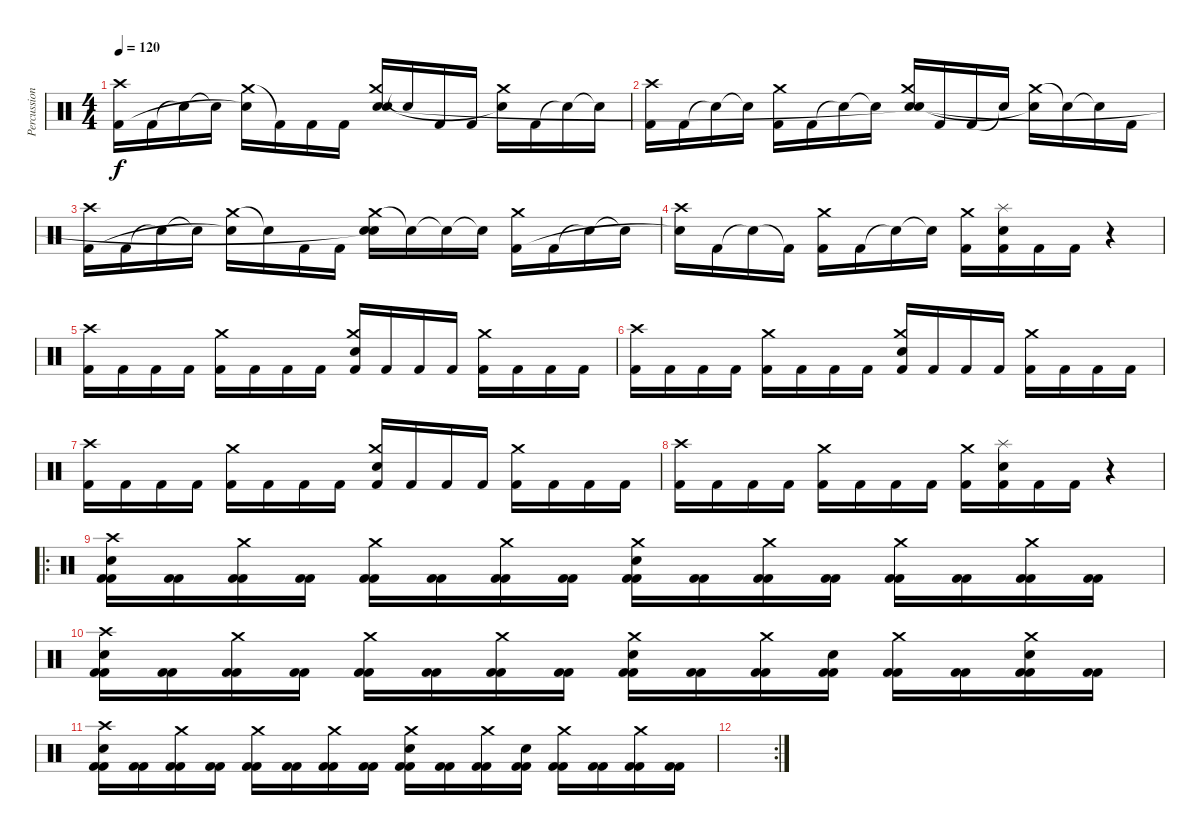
\track ("Percussion" "Percussion") {instrument percussion}
\staff {score}
\articulation defaults
\ts (4 4)
\tempo 120
\clef neutral
\ks c
("Crash high (hit)" "Kick (hit) 2").16{dy f} "Kick (hit) 2".16 "Snare (hit)"{t}.16 "Snare (hit)"{t}.16 ("Crash medium (hit)" "Snare (hit)"{t}).16 "Kick (hit) 2"{t}.16 "Kick (hit) 2".16 "Kick (hit) 2".16 ("Crash medium (hit)" "Electric Snare (hit)" "Snare (hit)"{t}).16 "Snare (hit)"{t}.16 "Kick (hit) 2".16 "Kick (hit) 2".16 ("Crash medium (hit)" "Snare (hit)"{t}).16 "Kick (hit) 2".16 "Snare (hit)"{t}.16 "Snare (hit)"{t}.16 |
("Crash high (hit)" "Kick (hit) 2").16 "Kick (hit) 2".16 "Snare (hit)"{t}.16 "Snare (hit)"{t}.16 ("Crash medium (hit)" "Kick (hit) 2").16 "Kick (hit) 2".16 "Snare (hit)"{t}.16 "Snare (hit)"{t}.16 ("Crash medium (hit)" "Electric Snare (hit)" "Snare (hit)"{t}).16 "Kick (hit) 2".16 "Kick (hit) 2".16 "Snare (hit)"{t}.16 ("Crash medium (hit)" "Snare (hit)"{t}).16 "Snare (hit)"{t}.16 "Snare (hit)"{t}.16 "Kick (hit) 2".16 |
("Crash high (hit)" "Kick (hit) 2").16 "Kick (hit) 2".16 "Snare (hit)"{t}.16 "Snare (hit)"{t}.16 ("Crash medium (hit)" "Snare (hit)"{t}).16 "Snare (hit)"{t}.16 "Kick (hit) 2".16 "Kick (hit) 2".16 ("Crash medium (hit)" "Electric Snare (hit)" "Snare (hit)"{t}).16 "Snare (hit)"{t}.16 "Snare (hit)"{t}.16 "Snare (hit)"{t}.16 ("Crash medium (hit)" "Kick (hit) 2").16 "Kick (hit) 2".16 "Snare (hit)"{t}.16 "Snare (hit)"{t}.16 |
("Crash high (hit)" "Snare (hit)"{t}).16 "Kick (hit) 2".16 "Snare (hit)"{t}.16 "Kick (hit) 2"{t}.16 ("Crash medium (hit)" "Kick (hit) 2").16 "Kick (hit) 2".16 "Snare (hit)"{t}.16 "Snare (hit)"{t}.16 ("Crash medium (hit)" "Kick (hit) 2").16 ("Splash (hit)" "Electric Snare (hit)" "Kick (hit) 2").16 "Kick (hit) 2".16 "Kick (hit) 2".16 r.4 |
("Crash high (hit)" "Kick (hit) 2").16 "Kick (hit) 2".16 "Kick (hit) 2".16 "Kick (hit) 2".16 ("Crash medium (hit)" "Kick (hit) 2").16 "Kick (hit) 2".16 "Kick (hit) 2".16 "Kick (hit) 2".16 ("Crash medium (hit)" "Electric Snare (hit)" "Kick (hit) 2").16 "Kick (hit) 2".16 "Kick (hit) 2".16 "Kick (hit) 2".16 ("Crash medium (hit)" "Kick (hit) 2").16 "Kick (hit) 2".16 "Kick (hit) 2".16 "Kick (hit) 2".16 |
("Crash high (hit)" "Kick (hit) 2").16 "Kick (hit) 2".16 "Kick (hit) 2".16 "Kick (hit) 2".16 ("Crash medium (hit)" "Kick (hit) 2").16 "Kick (hit) 2".16 "Kick (hit) 2".16 "Kick (hit) 2".16 ("Crash medium (hit)" "Electric Snare (hit)" "Kick (hit) 2").16 "Kick (hit) 2".16 "Kick (hit) 2".16 "Kick (hit) 2".16 ("Crash medium (hit)" "Kick (hit) 2").16 "Kick (hit) 2".16 "Kick (hit) 2".16 "Kick (hit) 2".16 |
("Crash high (hit)" "Kick (hit) 2").16 "Kick (hit) 2".16 "Kick (hit) 2".16 "Kick (hit) 2".16 ("Crash medium (hit)" "Kick (hit) 2").16 "Kick (hit) 2".16 "Kick (hit) 2".16 "Kick (hit) 2".16 ("Crash medium (hit)" "Electric Snare (hit)" "Kick (hit) 2").16 "Kick (hit) 2".16 "Kick (hit) 2".16 "Kick (hit) 2".16 ("Crash medium (hit)" "Kick (hit) 2").16 "Kick (hit) 2".16 "Kick (hit) 2".16 "Kick (hit) 2".16 |
("Crash high (hit)" "Kick (hit) 2").16 "Kick (hit) 2".16 "Kick (hit) 2".16 "Kick (hit) 2".16 ("Crash medium (hit)" "Kick (hit) 2").16 "Kick (hit) 2".16 "Kick (hit) 2".16 "Kick (hit) 2".16 ("Crash medium (hit)" "Kick (hit) 2").16 ("Splash (hit)" "Electric Snare (hit)" "Kick (hit) 2").16 "Kick (hit) 2".16 "Kick (hit) 2".16 r.4 |
\ro
("Crash high (hit)" "Electric Snare (hit)" "Kick (hit) 2" "Kick (hit) 2").16 ("Kick (hit) 2" "Kick (hit) 2").16 ("Crash medium (hit)" "Kick (hit) 2" "Kick (hit) 2").16 ("Kick (hit) 2" "Kick (hit) 2").16 ("Crash medium (hit)" "Kick (hit) 2" "Kick (hit) 2").16 ("Kick (hit) 2" "Kick (hit) 2").16 ("Crash medium (hit)" "Kick (hit) 2" "Kick (hit) 2").16 ("Kick (hit) 2" "Kick (hit) 2").16 ("Crash medium (hit)" "Electric Snare (hit)" "Kick (hit) 2" "Kick (hit) 2").16 ("Kick (hit) 2" "Kick (hit) 2").16 ("Crash medium (hit)" "Kick (hit) 2" "Kick (hit) 2").16 ("Kick (hit) 2" "Kick (hit) 2").16 ("Crash medium (hit)" "Kick (hit) 2" "Kick (hit) 2").16 ("Kick (hit) 2" "Kick (hit) 2").16 ("Crash medium (hit)" "Kick (hit) 2" "Kick (hit) 2").16 ("Kick (hit) 2" "Kick (hit) 2").16 |
("Crash high (hit)" "Electric Snare (hit)" "Kick (hit) 2" "Kick (hit) 2").16 ("Kick (hit) 2" "Kick (hit) 2").16 ("Crash medium (hit)" "Kick (hit) 2" "Kick (hit) 2").16 ("Kick (hit) 2" "Kick (hit) 2").16 ("Crash medium (hit)" "Kick (hit) 2" "Kick (hit) 2").16 ("Kick (hit) 2" "Kick (hit) 2").16 ("Crash medium (hit)" "Kick (hit) 2" "Kick (hit) 2").16 ("Kick (hit) 2" "Kick (hit) 2").16 ("Crash medium (hit)" "Electric Snare (hit)" "Kick (hit) 2" "Kick (hit) 2").16 ("Kick (hit) 2" "Kick (hit) 2").16 ("Crash medium (hit)" "Kick (hit) 2" "Kick (hit) 2").16 ("Electric Snare (hit)" "Kick (hit) 2" "Kick (hit) 2").16 ("Crash medium (hit)" "Kick (hit) 2" "Kick (hit) 2").16 ("Kick (hit) 2" "Kick (hit) 2").16 ("Crash medium (hit)" "Electric Snare (hit)" "Kick (hit) 2" "Kick (hit) 2").16 ("Kick (hit) 2" "Kick (hit) 2").16 |
("Crash high (hit)" "Electric Snare (hit)" "Kick (hit) 2" "Kick (hit) 2").16 ("Kick (hit) 2" "Kick (hit) 2").16 ("Crash medium (hit)" "Kick (hit) 2" "Kick (hit) 2").16 ("Kick (hit) 2" "Kick (hit) 2").16 ("Crash medium (hit)" "Kick (hit) 2" "Kick (hit) 2").16 ("Kick (hit) 2" "Kick (hit) 2").16 ("Crash medium (hit)" "Kick (hit) 2" "Kick (hit) 2").16 ("Kick (hit) 2" "Kick (hit) 2").16 ("Crash medium (hit)" "Electric Snare (hit)" "Kick (hit) 2" "Kick (hit) 2").16 ("Kick (hit) 2" "Kick (hit) 2").16 ("Crash medium (hit)" "Kick (hit) 2" "Kick (hit) 2").16 ("Electric Snare (hit)" "Kick (hit) 2" "Kick (hit) 2").16 ("Crash medium (hit)" "Kick (hit) 2" "Kick (hit) 2").16 ("Kick (hit) 2" "Kick (hit) 2").16 ("Crash medium (hit)" "Kick (hit) 2" "Kick (hit) 2").16 ("Kick (hit) 2" "Kick (hit) 2").16 |
\rc 2
